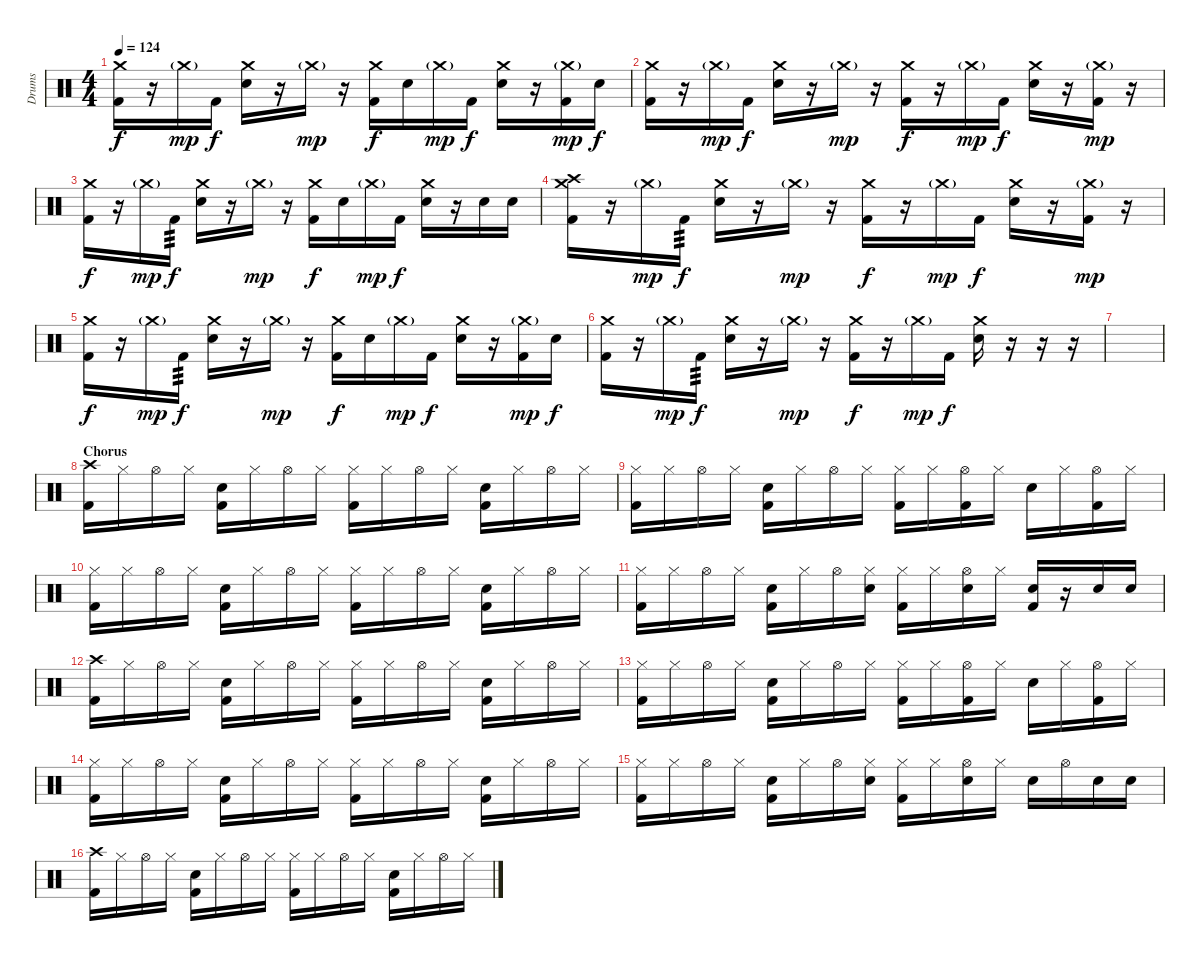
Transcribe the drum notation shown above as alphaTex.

\track ("Drums" "Drums") {instrument percussion}
\staff {score}
\articulation defaults
\ts (4 4)
\tempo 124
\clef neutral
\ks c
("Crash medium (hit)" "Kick (hit) 2").16{dy f} r.16 "Crash medium (hit)"{g}.16{dy mp} "Kick (hit) 2".16{dy f} ("Crash medium (hit)" "Electric Snare (hit)").16 r.16 "Crash medium (hit)"{g}.16{dy mp} r.16 ("Crash medium (hit)" "Kick (hit) 2").16{dy f} "Electric Snare (hit)".16 "Crash medium (hit)"{g}.16{dy mp} "Kick (hit) 2".16{dy f} ("Crash medium (hit)" "Electric Snare (hit)").16 r.16 ("Crash medium (hit)"{g} "Kick (hit) 2").16{dy mp} "Electric Snare (hit)".16{dy f} |
("Crash medium (hit)" "Kick (hit) 2").16 r.16 "Crash medium (hit)"{g}.16{dy mp} "Kick (hit) 2".16{dy f} ("Crash medium (hit)" "Electric Snare (hit)").16 r.16 "Crash medium (hit)"{g}.16{dy mp} r.16 ("Crash medium (hit)" "Kick (hit) 2").16{dy f} r.16 "Crash medium (hit)"{g}.16{dy mp} "Kick (hit) 2".16{dy f} ("Crash medium (hit)" "Electric Snare (hit)").16 r.16 ("Crash medium (hit)"{g} "Kick (hit) 2").16{dy mp} r.16 |
("Crash medium (hit)" "Kick (hit) 2").16{dy f} r.16 "Crash medium (hit)"{g}.16{dy mp} "Kick (hit) 2".16{tp 3 dy f} ("Crash medium (hit)" "Electric Snare (hit)").16 r.16 "Crash medium (hit)"{g}.16{dy mp} r.16 ("Crash medium (hit)" "Kick (hit) 2").16{dy f} "Electric Snare (hit)".16 "Crash medium (hit)"{g}.16{dy mp} "Kick (hit) 2".16{dy f} ("Crash medium (hit)" "Electric Snare (hit)").16 r.16 "Electric Snare (hit)".16 "Electric Snare (hit)".16 |
("Crash medium (hit)" "Crash high (hit)" "Kick (hit) 2").16 r.16 "Crash medium (hit)"{g}.16{dy mp} "Kick (hit) 2".16{tp 3 dy f} ("Crash medium (hit)" "Electric Snare (hit)").16 r.16 "Crash medium (hit)"{g}.16{dy mp} r.16 ("Crash medium (hit)" "Kick (hit) 2").16{dy f} r.16 "Crash medium (hit)"{g}.16{dy mp} "Kick (hit) 2".16{dy f} ("Crash medium (hit)" "Electric Snare (hit)").16 r.16 ("Crash medium (hit)"{g} "Kick (hit) 2").16{dy mp} r.16 |
("Crash medium (hit)" "Kick (hit) 2").16{dy f} r.16 "Crash medium (hit)"{g}.16{dy mp} "Kick (hit) 2".16{tp 3 dy f} ("Crash medium (hit)" "Electric Snare (hit)").16 r.16 "Crash medium (hit)"{g}.16{dy mp} r.16 ("Crash medium (hit)" "Kick (hit) 2").16{dy f} "Electric Snare (hit)".16 "Crash medium (hit)"{g}.16{dy mp} "Kick (hit) 2".16{dy f} ("Crash medium (hit)" "Electric Snare (hit)").16 r.16 ("Crash medium (hit)"{g} "Kick (hit) 2").16{dy mp} "Electric Snare (hit)".16{dy f} |
("Crash medium (hit)" "Kick (hit) 2").16 r.16 "Crash medium (hit)"{g}.16{dy mp} "Kick (hit) 2".16{tp 3 dy f} ("Crash medium (hit)" "Electric Snare (hit)").16 r.16 "Crash medium (hit)"{g}.16{dy mp} r.16 ("Crash medium (hit)" "Kick (hit) 2").16{dy f} r.16 "Crash medium (hit)"{g}.16{dy mp} "Kick (hit) 2".16{dy f} ("Crash medium (hit)" "Electric Snare (hit)").16 r.16 r.16 r.16 |
\section ("" "")
|
\section ("" "Chorus")
("Crash high (hit)" "Kick (hit) 2").16 "Hi-Hat (closed)".16 "Hi-Hat (open)".16 "Hi-Hat (closed)".16 ("Electric Snare (hit)" "Kick (hit) 2").16 "Hi-Hat (closed)".16 "Hi-Hat (open)".16 "Hi-Hat (closed)".16 ("Hi-Hat (closed)" "Kick (hit) 2").16 "Hi-Hat (closed)".16 "Hi-Hat (open)".16 "Hi-Hat (closed)".16 ("Electric Snare (hit)" "Kick (hit) 2").16 "Hi-Hat (closed)".16 "Hi-Hat (open)".16 "Hi-Hat (closed)".16 |
("Hi-Hat (closed)" "Kick (hit) 2").16 "Hi-Hat (closed)".16 "Hi-Hat (open)".16 "Hi-Hat (closed)".16 ("Electric Snare (hit)" "Kick (hit) 2").16 "Hi-Hat (closed)".16 "Hi-Hat (open)".16 "Hi-Hat (closed)".16 ("Hi-Hat (closed)" "Kick (hit) 2").16 "Hi-Hat (closed)".16 ("Hi-Hat (open)" "Kick (hit) 2").16 "Hi-Hat (closed)".16 "Electric Snare (hit)".16 "Hi-Hat (closed)".16 ("Hi-Hat (open)" "Kick (hit) 2").16 "Hi-Hat (closed)".16 |
("Hi-Hat (closed)" "Kick (hit) 2").16 "Hi-Hat (closed)".16 "Hi-Hat (open)".16 "Hi-Hat (closed)".16 ("Electric Snare (hit)" "Kick (hit) 2").16 "Hi-Hat (closed)".16 "Hi-Hat (open)".16 "Hi-Hat (closed)".16 ("Hi-Hat (closed)" "Kick (hit) 2").16 "Hi-Hat (closed)".16 "Hi-Hat (open)".16 "Hi-Hat (closed)".16 ("Electric Snare (hit)" "Kick (hit) 2").16 "Hi-Hat (closed)".16 "Hi-Hat (open)".16 "Hi-Hat (closed)".16 |
("Hi-Hat (closed)" "Kick (hit) 2").16 "Hi-Hat (closed)".16 "Hi-Hat (open)".16 "Hi-Hat (closed)".16 ("Electric Snare (hit)" "Kick (hit) 2").16 "Hi-Hat (closed)".16 "Hi-Hat (open)".16 ("Hi-Hat (closed)" "Electric Snare (hit)").16 ("Hi-Hat (closed)" "Kick (hit) 2").16 "Hi-Hat (closed)".16 ("Hi-Hat (open)" "Electric Snare (hit)").16 "Hi-Hat (closed)".16 ("Electric Snare (hit)" "Kick (hit) 2").16 r.16 "Electric Snare (hit)".16 "Electric Snare (hit)".16 |
("Crash high (hit)" "Kick (hit) 2").16 "Hi-Hat (closed)".16 "Hi-Hat (open)".16 "Hi-Hat (closed)".16 ("Electric Snare (hit)" "Kick (hit) 2").16 "Hi-Hat (closed)".16 "Hi-Hat (open)".16 "Hi-Hat (closed)".16 ("Hi-Hat (closed)" "Kick (hit) 2").16 "Hi-Hat (closed)".16 "Hi-Hat (open)".16 "Hi-Hat (closed)".16 ("Electric Snare (hit)" "Kick (hit) 2").16 "Hi-Hat (closed)".16 "Hi-Hat (open)".16 "Hi-Hat (closed)".16 |
("Hi-Hat (closed)" "Kick (hit) 2").16 "Hi-Hat (closed)".16 "Hi-Hat (open)".16 "Hi-Hat (closed)".16 ("Electric Snare (hit)" "Kick (hit) 2").16 "Hi-Hat (closed)".16 "Hi-Hat (open)".16 "Hi-Hat (closed)".16 ("Hi-Hat (closed)" "Kick (hit) 2").16 "Hi-Hat (closed)".16 ("Hi-Hat (open)" "Kick (hit) 2").16 "Hi-Hat (closed)".16 "Electric Snare (hit)".16 "Hi-Hat (closed)".16 ("Hi-Hat (open)" "Kick (hit) 2").16 "Hi-Hat (closed)".16 |
("Hi-Hat (closed)" "Kick (hit) 2").16 "Hi-Hat (closed)".16 "Hi-Hat (open)".16 "Hi-Hat (closed)".16 ("Electric Snare (hit)" "Kick (hit) 2").16 "Hi-Hat (closed)".16 "Hi-Hat (open)".16 "Hi-Hat (closed)".16 ("Hi-Hat (closed)" "Kick (hit) 2").16 "Hi-Hat (closed)".16 "Hi-Hat (open)".16 "Hi-Hat (closed)".16 ("Electric Snare (hit)" "Kick (hit) 2").16 "Hi-Hat (closed)".16 "Hi-Hat (open)".16 "Hi-Hat (closed)".16 |
("Hi-Hat (closed)" "Kick (hit) 2").16 "Hi-Hat (closed)".16 "Hi-Hat (open)".16 "Hi-Hat (closed)".16 ("Electric Snare (hit)" "Kick (hit) 2").16 "Hi-Hat (closed)".16 "Hi-Hat (open)".16 ("Hi-Hat (closed)" "Electric Snare (hit)").16 ("Hi-Hat (closed)" "Kick (hit) 2").16 "Hi-Hat (closed)".16 ("Hi-Hat (open)" "Electric Snare (hit)").16 "Hi-Hat (closed)".16 "Electric Snare (hit)".16 "Hi-Hat (open)".16 "Electric Snare (hit)".16 "Electric Snare (hit)".16 |
("Crash high (hit)" "Kick (hit) 2").16 "Hi-Hat (closed)".16 "Hi-Hat (open)".16 "Hi-Hat (closed)".16 ("Electric Snare (hit)" "Kick (hit) 2").16 "Hi-Hat (closed)".16 "Hi-Hat (open)".16 "Hi-Hat (closed)".16 ("Hi-Hat (closed)" "Kick (hit) 2").16 "Hi-Hat (closed)".16 "Hi-Hat (open)".16 "Hi-Hat (closed)".16 ("Electric Snare (hit)" "Kick (hit) 2").16 "Hi-Hat (closed)".16 "Hi-Hat (open)".16 "Hi-Hat (closed)".16
